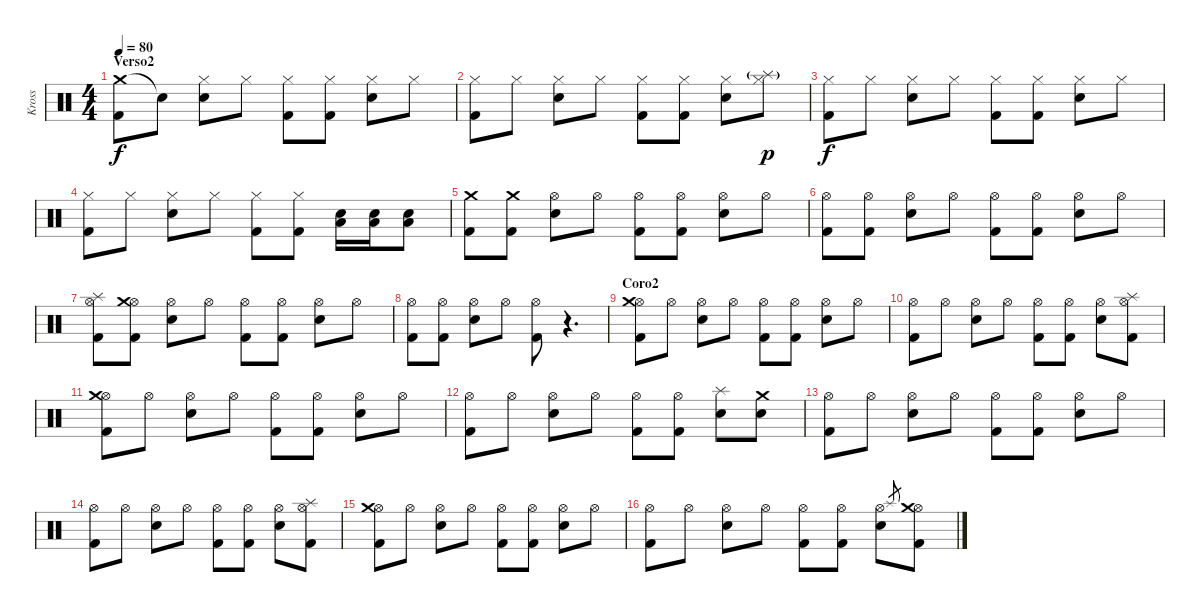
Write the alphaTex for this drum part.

\track ("Kross" "Kross") {instrument percussion}
\staff {score}
\articulation defaults
\ts (4 4)
\section ("" "Verso2")
\tempo 80
\clef neutral
\ks c
("Crash medium (hit)" "Kick (hit) 2").8{dy f} "Snare (hit)"{t}.8 ("Hi-Hat (closed)" "Snare (hit) 2").8 "Hi-Hat (closed)".8 ("Hi-Hat (closed)" "Kick (hit) 2").8 ("Hi-Hat (closed)" "Kick (hit) 2").8 ("Hi-Hat (closed)" "Snare (hit) 2").8 "Hi-Hat (closed)".8 |
("Hi-Hat (closed)" "Kick (hit) 2").8 "Hi-Hat (closed)".8 ("Hi-Hat (closed)" "Snare (hit) 2").8 "Hi-Hat (closed)".8 ("Hi-Hat (closed)" "Kick (hit) 2").8 ("Hi-Hat (closed)" "Kick (hit) 2").8 ("Hi-Hat (closed)" "Snare (hit) 2").8 ("Hi-Hat (closed)" "Splash (hit)"{g}).8{dy p} |
("Hi-Hat (closed)" "Kick (hit) 2").8{dy f} "Hi-Hat (closed)".8 ("Hi-Hat (closed)" "Snare (hit) 2").8 "Hi-Hat (closed)".8 ("Hi-Hat (closed)" "Kick (hit) 2").8 ("Hi-Hat (closed)" "Kick (hit) 2").8 ("Hi-Hat (closed)" "Snare (hit) 2").8 "Hi-Hat (closed)".8 |
("Hi-Hat (closed)" "Kick (hit) 2").8 "Hi-Hat (closed)".8 ("Hi-Hat (closed)" "Snare (hit) 2").8 "Hi-Hat (closed)".8 ("Hi-Hat (closed)" "Kick (hit) 2").8 ("Hi-Hat (closed)" "Kick (hit) 2").8 ("Low Tom (hit)" "Snare (hit) 2").16 ("Low Tom (hit)" "Snare (hit) 2").16 ("Low Tom (hit)" "Snare (hit) 2").8 |
("Crash medium (hit)" "Kick (hit) 2").8 ("Crash medium (hit)" "Kick (hit) 2").8 ("Hi-Hat (open)" "Snare (hit) 2").8 "Hi-Hat (open)".8 ("Hi-Hat (open)" "Kick (hit) 2").8 ("Hi-Hat (open)" "Kick (hit) 2").8 ("Hi-Hat (open)" "Snare (hit) 2").8 "Hi-Hat (open)".8 |
("Hi-Hat (open)" "Kick (hit) 2").8 ("Hi-Hat (open)" "Kick (hit) 2").8 ("Hi-Hat (open)" "Snare (hit) 2").8 "Hi-Hat (open)".8 ("Hi-Hat (open)" "Kick (hit) 2").8 ("Hi-Hat (open)" "Kick (hit) 2").8 ("Hi-Hat (open)" "Snare (hit) 2").8 "Hi-Hat (open)".8 |
("Hi-Hat (open)" "Splash (hit)" "Kick (hit) 2").8 ("Hi-Hat (open)" "Crash medium (hit)" "Kick (hit) 2").8 ("Hi-Hat (open)" "Snare (hit) 2").8 "Hi-Hat (open)".8 ("Hi-Hat (open)" "Kick (hit) 2").8 ("Hi-Hat (open)" "Kick (hit) 2").8 ("Hi-Hat (open)" "Snare (hit) 2").8 "Hi-Hat (open)".8 |
("Hi-Hat (open)" "Kick (hit) 2").8 ("Hi-Hat (open)" "Kick (hit) 2").8 ("Hi-Hat (open)" "Snare (hit) 2").8 "Hi-Hat (open)".8 ("Hi-Hat (open)" "Kick (hit) 2").8 r.4{d} |
\section ("" "Coro2")
("Hi-Hat (open)" "Crash medium (hit)" "Kick (hit) 2").8 "Hi-Hat (open)".8 ("Hi-Hat (open)" "Snare (hit) 2").8 "Hi-Hat (open)".8 ("Hi-Hat (open)" "Kick (hit) 2").8 ("Hi-Hat (open)" "Kick (hit) 2").8 ("Hi-Hat (open)" "Snare (hit) 2").8 "Hi-Hat (open)".8 |
("Hi-Hat (open)" "Kick (hit) 2").8 "Hi-Hat (open)".8 ("Hi-Hat (open)" "Snare (hit) 2").8 "Hi-Hat (open)".8 ("Hi-Hat (open)" "Kick (hit) 2").8 ("Hi-Hat (open)" "Kick (hit) 2").8 ("Hi-Hat (open)" "Snare (hit) 2").8 ("Hi-Hat (open)" "Splash (hit)" "Kick (hit) 2").8 |
("Hi-Hat (open)" "Crash medium (hit)" "Kick (hit) 2").8 "Hi-Hat (open)".8 ("Hi-Hat (open)" "Snare (hit) 2").8 "Hi-Hat (open)".8 ("Hi-Hat (open)" "Kick (hit) 2").8 ("Hi-Hat (open)" "Kick (hit) 2").8 ("Hi-Hat (open)" "Snare (hit) 2").8 "Hi-Hat (open)".8 |
("Hi-Hat (open)" "Kick (hit) 2").8 "Hi-Hat (open)".8 ("Hi-Hat (open)" "Snare (hit) 2").8 "Hi-Hat (open)".8 ("Hi-Hat (open)" "Kick (hit) 2").8 ("Hi-Hat (open)" "Kick (hit) 2").8 ("Splash (hit)" "Snare (hit) 2").8 ("Crash medium (hit)" "Snare (hit) 2").8 |
("Hi-Hat (open)" "Kick (hit) 2").8 "Hi-Hat (open)".8 ("Hi-Hat (open)" "Snare (hit) 2").8 "Hi-Hat (open)".8 ("Hi-Hat (open)" "Kick (hit) 2").8 ("Hi-Hat (open)" "Kick (hit) 2").8 ("Hi-Hat (open)" "Snare (hit) 2").8 "Hi-Hat (open)".8 |
("Hi-Hat (open)" "Kick (hit) 2").8 "Hi-Hat (open)".8 ("Hi-Hat (open)" "Snare (hit) 2").8 "Hi-Hat (open)".8 ("Hi-Hat (open)" "Kick (hit) 2").8 ("Hi-Hat (open)" "Kick (hit) 2").8 ("Hi-Hat (open)" "Snare (hit) 2").8 ("Hi-Hat (open)" "Splash (hit)" "Kick (hit) 2").8 |
("Hi-Hat (open)" "Crash medium (hit)" "Kick (hit) 2").8 "Hi-Hat (open)".8 ("Hi-Hat (open)" "Snare (hit) 2").8 "Hi-Hat (open)".8 ("Hi-Hat (open)" "Kick (hit) 2").8 ("Hi-Hat (open)" "Kick (hit) 2").8 ("Hi-Hat (open)" "Snare (hit) 2").8 "Hi-Hat (open)".8 |
("Hi-Hat (open)" "Kick (hit) 2").8 "Hi-Hat (open)".8 ("Hi-Hat (open)" "Snare (hit) 2").8 "Hi-Hat (open)".8 ("Hi-Hat (open)" "Kick (hit) 2").8 ("Hi-Hat (open)" "Kick (hit) 2").8 ("Hi-Hat (open)" "Snare (hit) 2").8 "Splash (hit)".8{gr} ("Hi-Hat (open)" "Crash medium (hit)" "Kick (hit) 2").8
